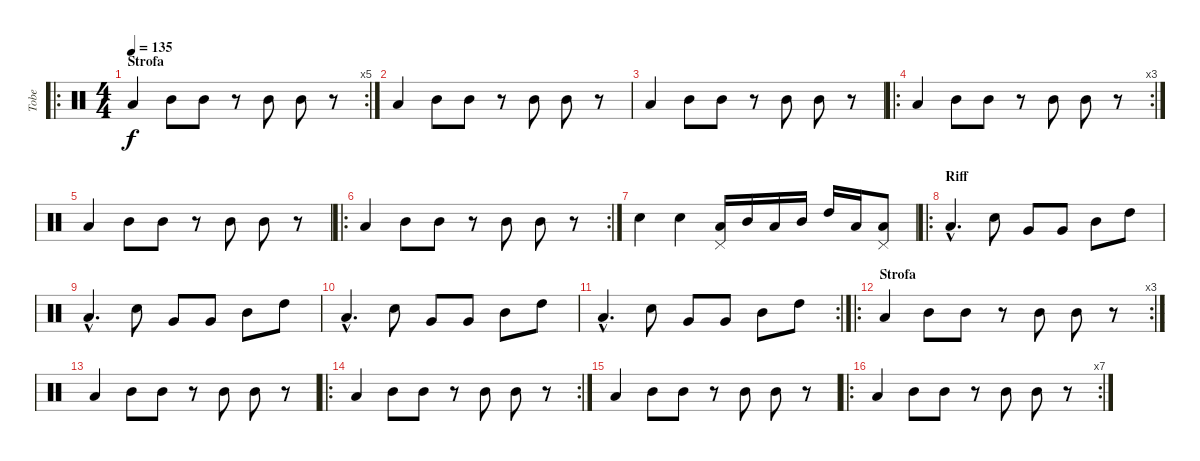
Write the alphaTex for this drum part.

\track ("Tobe" "Tobe") {instrument percussion}
\staff {score}
\articulation defaults
\ro
\rc 5
\ts (4 4)
\section ("" "Strofa")
\tempo 135
\clef neutral
\ks c "Low Tom (hit)".4{dy f} "Mid Tom (hit)".8 "Mid Tom (hit)".8
r.8 "Mid Tom (hit)".8 "Mid Tom (hit)".8 r.8 |
"Low Tom (hit)".4 "Mid Tom (hit)".8 "Mid Tom (hit)".8 r.8 "Mid Tom (hit)".8 "Mid Tom (hit)".8 r.8 |
"Low Tom (hit)".4 "Mid Tom (hit)".8 "Mid Tom (hit)".8 r.8 "Mid Tom (hit)".8 "Mid Tom (hit)".8 r.8 |
\ro
\rc 3 "Low Tom (hit)".4 "Mid Tom (hit)".8 "Mid Tom (hit)".8
r.8 "Mid Tom (hit)".8 "Mid Tom (hit)".8 r.8 |
"Low Tom (hit)".4 "Mid Tom (hit)".8 "Mid Tom (hit)".8 r.8 "Mid Tom (hit)".8 "Mid Tom (hit)".8 r.8 |
\ro
\rc 2 "Low Tom (hit)".4 "Mid Tom (hit)".8 "Mid Tom (hit)".8
r.8 "Mid Tom (hit)".8 "Mid Tom (hit)".8 r.8 |
"Snare (hit) 2".4 "Snare (hit) 2".4 ("Low Tom (hit)" "Pedal Hi-Hat (hit)").16 "Mid Tom (hit)".16 "Low Tom (hit)".16 "Mid Tom (hit)".16 "High Tom (hit)".16 "Low Floor Tom (hit)".16 ("Low Tom (hit)" "Pedal Hi-Hat (hit)").8 |
\ro
\section ("" "Riff")
"Low Tom (hit)"{hac}.4{d} "Snare (hit) 2".8 "Very Low Tom (hit)".8 "Very Low Tom (hit)".8 "Mid Tom (hit)".8 "High Tom (hit)".8 |
"Low Tom (hit)"{hac}.4{d} "Snare (hit) 2".8 "Very Low Tom (hit)".8 "Very Low Tom (hit)".8 "Mid Tom (hit)".8 "High Tom (hit)".8 |
"Low Tom (hit)"{hac}.4{d} "Snare (hit) 2".8 "Very Low Tom (hit)".8 "Very Low Tom (hit)".8 "Mid Tom (hit)".8 "High Tom (hit)".8 |
\rc 2 "Low Tom (hit)"{hac}.4{d} "Snare (hit) 2".8 "Very Low Tom (hit)".8 "Very Low Tom (hit)".8 "Mid Tom (hit)".8 "High Tom (hit)".8
|
\ro
\rc 3
\section ("" "Strofa")
"Low Tom (hit)".4 "Mid Tom (hit)".8 "Mid Tom (hit)".8 r.8 "Mid Tom (hit)".8 "Mid Tom (hit)".8 r.8 |
"Low Tom (hit)".4 "Mid Tom (hit)".8 "Mid Tom (hit)".8 r.8 "Mid Tom (hit)".8 "Mid Tom (hit)".8 r.8 |
\ro
\rc 2 "Low Tom (hit)".4 "Mid Tom (hit)".8 "Mid Tom (hit)".8
r.8 "Mid Tom (hit)".8 "Mid Tom (hit)".8 r.8 |
"Low Tom (hit)".4 "Mid Tom (hit)".8 "Mid Tom (hit)".8 r.8 "Mid Tom (hit)".8 "Mid Tom (hit)".8 r.8 |
\ro
\rc 7 "Low Tom (hit)".4 "Mid Tom (hit)".8 "Mid Tom (hit)".8
r.8 "Mid Tom (hit)".8 "Mid Tom (hit)".8 r.8
